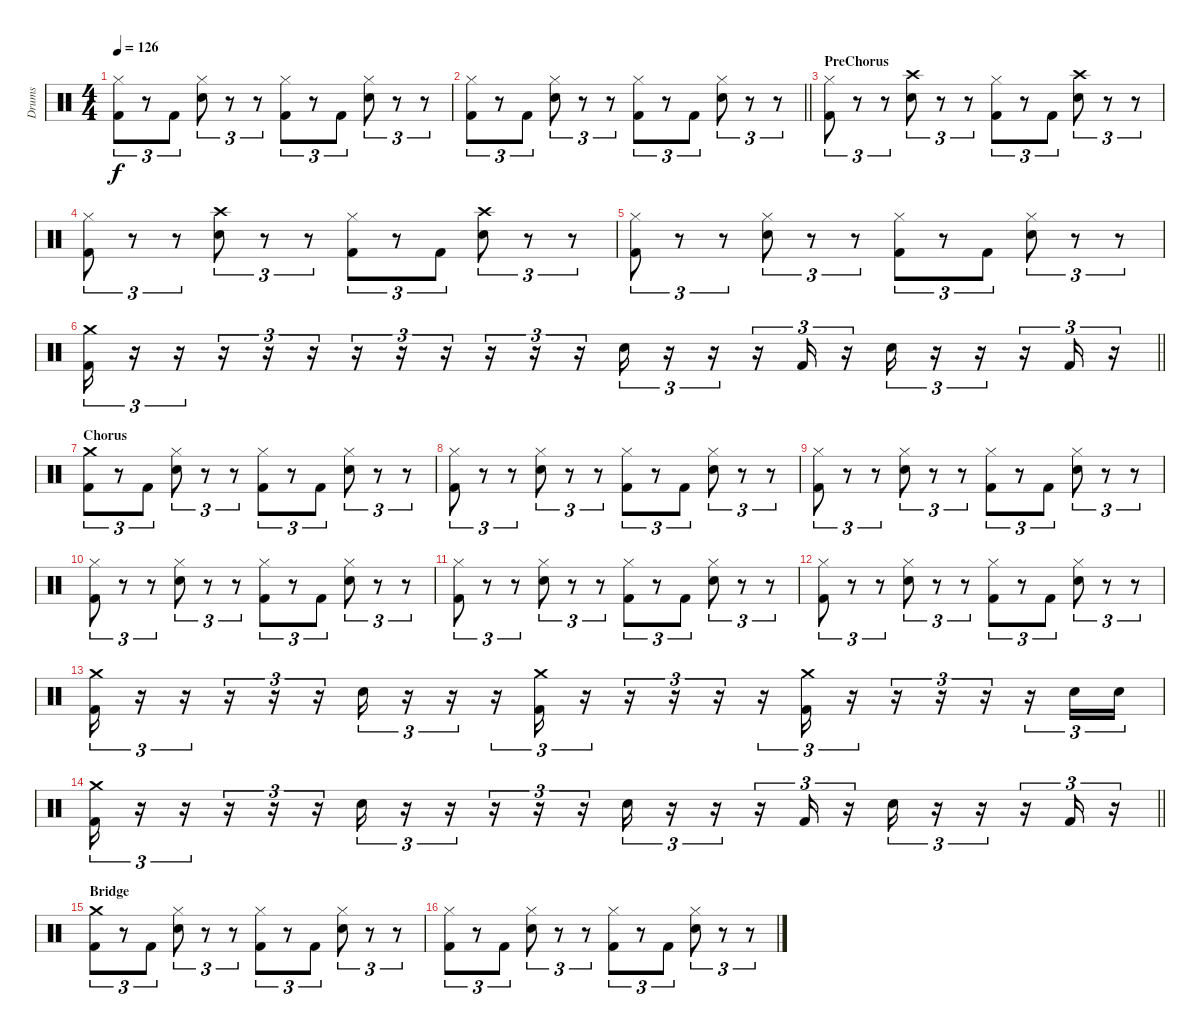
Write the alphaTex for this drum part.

\track ("Drums" "Drums") {instrument percussion}
\staff {score}
\articulation defaults
\ts (4 4)
\tempo 126
\clef neutral
\ks c
("Hi-Hat (closed)" "Kick (hit) 2").8{tu (3 2) dy f} r.8{tu (3 2)} "Kick (hit) 2".8{tu (3 2)} ("Hi-Hat (closed)" "Snare (hit) 2").8{tu (3 2)} r.8{tu (3 2)} r.8{tu (3 2)} ("Hi-Hat (closed)" "Kick (hit) 2").8{tu (3 2)} r.8{tu (3 2)} "Kick (hit) 2".8{tu (3 2)} ("Hi-Hat (closed)" "Snare (hit) 2").8{tu (3 2)} r.8{tu (3 2)} r.8{tu (3 2)} |
\barLineRight lightlight
("Hi-Hat (closed)" "Kick (hit) 2").8{tu (3 2)} r.8{tu (3 2)} "Kick (hit) 2".8{tu (3 2)} ("Hi-Hat (closed)" "Snare (hit) 2").8{tu (3 2)} r.8{tu (3 2)} r.8{tu (3 2)} ("Hi-Hat (closed)" "Kick (hit) 2").8{tu (3 2)} r.8{tu (3 2)} "Kick (hit) 2".8{tu (3 2)} ("Hi-Hat (closed)" "Snare (hit) 2").8{tu (3 2)} r.8{tu (3 2)} r.8{tu (3 2)} |
\section ("" "PreChorus")
("Hi-Hat (closed)" "Kick (hit) 2").8{tu (3 2)} r.8{tu (3 2)} r.8{tu (3 2)} ("Crash high (hit)" "Snare (hit) 2").8{tu (3 2)} r.8{tu (3 2)} r.8{tu (3 2)} ("Hi-Hat (closed)" "Kick (hit) 2").8{tu (3 2)} r.8{tu (3 2)} "Kick (hit) 2".8{tu (3 2)} ("Crash high (hit)" "Snare (hit) 2").8{tu (3 2)} r.8{tu (3 2)} r.8{tu (3 2)} |
("Hi-Hat (closed)" "Kick (hit) 2").8{tu (3 2)} r.8{tu (3 2)} r.8{tu (3 2)} ("Crash high (hit)" "Snare (hit) 2").8{tu (3 2)} r.8{tu (3 2)} r.8{tu (3 2)} ("Hi-Hat (closed)" "Kick (hit) 2").8{tu (3 2)} r.8{tu (3 2)} "Kick (hit) 2".8{tu (3 2)} ("Crash high (hit)" "Snare (hit) 2").8{tu (3 2)} r.8{tu (3 2)} r.8{tu (3 2)} |
("Hi-Hat (closed)" "Kick (hit) 2").8{tu (3 2)} r.8{tu (3 2)} r.8{tu (3 2)} ("Hi-Hat (closed)" "Snare (hit) 2").8{tu (3 2)} r.8{tu (3 2)} r.8{tu (3 2)} ("Hi-Hat (closed)" "Kick (hit) 2").8{tu (3 2)} r.8{tu (3 2)} "Kick (hit) 2".8{tu (3 2)} ("Hi-Hat (closed)" "Snare (hit) 2").8{tu (3 2)} r.8{tu (3 2)} r.8{tu (3 2)} |
\barLineRight lightlight
("Crash medium (hit)" "Kick (hit) 2").16{tu (3 2)} r.16{tu (3 2)} r.16{tu (3 2)} r.16{tu (3 2)} r.16{tu (3 2)} r.16{tu (3 2)} r.16{tu (3 2)} r.16{tu (3 2)} r.16{tu (3 2)} r.16{tu (3 2)} r.16{tu (3 2)} r.16{tu (3 2)} "Snare (hit) 2".16{tu (3 2)} r.16{tu (3 2)} r.16{tu (3 2)} r.16{tu (3 2)} "Kick (hit) 2".16{tu (3 2)} r.16{tu (3 2)} "Snare (hit) 2".16{tu (3 2)} r.16{tu (3 2)} r.16{tu (3 2)} r.16{tu (3 2)} "Kick (hit) 2".16{tu (3 2)} r.16{tu (3 2)} |
\section ("" "Chorus")
("Crash medium (hit)" "Kick (hit) 2").8{tu (3 2)} r.8{tu (3 2)} "Kick (hit) 2".8{tu (3 2)} ("Hi-Hat (closed)" "Snare (hit) 2").8{tu (3 2)} r.8{tu (3 2)} r.8{tu (3 2)} ("Hi-Hat (closed)" "Kick (hit) 2").8{tu (3 2)} r.8{tu (3 2)} "Kick (hit) 2".8{tu (3 2)} ("Hi-Hat (closed)" "Snare (hit) 2").8{tu (3 2)} r.8{tu (3 2)} r.8{tu (3 2)} |
("Hi-Hat (closed)" "Kick (hit) 2").8{tu (3 2)} r.8{tu (3 2)} r.8{tu (3 2)} ("Hi-Hat (closed)" "Snare (hit) 2").8{tu (3 2)} r.8{tu (3 2)} r.8{tu (3 2)} ("Hi-Hat (closed)" "Kick (hit) 2").8{tu (3 2)} r.8{tu (3 2)} "Kick (hit) 2".8{tu (3 2)} ("Hi-Hat (closed)" "Snare (hit) 2").8{tu (3 2)} r.8{tu (3 2)} r.8{tu (3 2)} |
("Hi-Hat (closed)" "Kick (hit) 2").8{tu (3 2)} r.8{tu (3 2)} r.8{tu (3 2)} ("Hi-Hat (closed)" "Snare (hit) 2").8{tu (3 2)} r.8{tu (3 2)} r.8{tu (3 2)} ("Hi-Hat (closed)" "Kick (hit) 2").8{tu (3 2)} r.8{tu (3 2)} "Kick (hit) 2".8{tu (3 2)} ("Hi-Hat (closed)" "Snare (hit) 2").8{tu (3 2)} r.8{tu (3 2)} r.8{tu (3 2)} |
("Hi-Hat (closed)" "Kick (hit) 2").8{tu (3 2)} r.8{tu (3 2)} r.8{tu (3 2)} ("Hi-Hat (closed)" "Snare (hit) 2").8{tu (3 2)} r.8{tu (3 2)} r.8{tu (3 2)} ("Hi-Hat (closed)" "Kick (hit) 2").8{tu (3 2)} r.8{tu (3 2)} "Kick (hit) 2".8{tu (3 2)} ("Hi-Hat (closed)" "Snare (hit) 2").8{tu (3 2)} r.8{tu (3 2)} r.8{tu (3 2)} |
("Hi-Hat (closed)" "Kick (hit) 2").8{tu (3 2)} r.8{tu (3 2)} r.8{tu (3 2)} ("Hi-Hat (closed)" "Snare (hit) 2").8{tu (3 2)} r.8{tu (3 2)} r.8{tu (3 2)} ("Hi-Hat (closed)" "Kick (hit) 2").8{tu (3 2)} r.8{tu (3 2)} "Kick (hit) 2".8{tu (3 2)} ("Hi-Hat (closed)" "Snare (hit) 2").8{tu (3 2)} r.8{tu (3 2)} r.8{tu (3 2)} |
("Hi-Hat (closed)" "Kick (hit) 2").8{tu (3 2)} r.8{tu (3 2)} r.8{tu (3 2)} ("Hi-Hat (closed)" "Snare (hit) 2").8{tu (3 2)} r.8{tu (3 2)} r.8{tu (3 2)} ("Hi-Hat (closed)" "Kick (hit) 2").8{tu (3 2)} r.8{tu (3 2)} "Kick (hit) 2".8{tu (3 2)} ("Hi-Hat (closed)" "Snare (hit) 2").8{tu (3 2)} r.8{tu (3 2)} r.8{tu (3 2)} |
("Crash medium (hit)" "Kick (hit) 2").16{tu (3 2)} r.16{tu (3 2)} r.16{tu (3 2)} r.16{tu (3 2)} r.16{tu (3 2)} r.16{tu (3 2)} "Snare (hit) 2".16{tu (3 2)} r.16{tu (3 2)} r.16{tu (3 2)} r.16{tu (3 2)} ("Crash medium (hit)" "Kick (hit) 2").16{tu (3 2)} r.16{tu (3 2)} r.16{tu (3 2)} r.16{tu (3 2)} r.16{tu (3 2)} r.16{tu (3 2)} ("Crash medium (hit)" "Kick (hit) 2").16{tu (3 2)} r.16{tu (3 2)} r.16{tu (3 2)} r.16{tu (3 2)} r.16{tu (3 2)} r.16{tu (3 2)} "Snare (hit) 2".16{tu (3 2)} "Snare (hit) 2".16{tu (3 2)} |
\barLineRight lightlight
("Crash medium (hit)" "Kick (hit) 2").16{tu (3 2)} r.16{tu (3 2)} r.16{tu (3 2)} r.16{tu (3 2)} r.16{tu (3 2)} r.16{tu (3 2)} "Snare (hit) 2".16{tu (3 2)} r.16{tu (3 2)} r.16{tu (3 2)} r.16{tu (3 2)} r.16{tu (3 2)} r.16{tu (3 2)} "Snare (hit) 2".16{tu (3 2)} r.16{tu (3 2)} r.16{tu (3 2)} r.16{tu (3 2)} "Kick (hit) 2".16{tu (3 2)} r.16{tu (3 2)} "Snare (hit) 2".16{tu (3 2)} r.16{tu (3 2)} r.16{tu (3 2)} r.16{tu (3 2)} "Kick (hit) 2".16{tu (3 2)} r.16{tu (3 2)} |
\section ("" "Bridge")
("Crash medium (hit)" "Kick (hit) 2").8{tu (3 2)} r.8{tu (3 2)} "Kick (hit) 2".8{tu (3 2)} ("Hi-Hat (closed)" "Snare (hit) 2").8{tu (3 2)} r.8{tu (3 2)} r.8{tu (3 2)} ("Hi-Hat (closed)" "Kick (hit) 2").8{tu (3 2)} r.8{tu (3 2)} "Kick (hit) 2".8{tu (3 2)} ("Hi-Hat (closed)" "Snare (hit) 2").8{tu (3 2)} r.8{tu (3 2)} r.8{tu (3 2)} |
("Hi-Hat (closed)" "Kick (hit) 2").8{tu (3 2)} r.8{tu (3 2)} "Kick (hit) 2".8{tu (3 2)} ("Hi-Hat (closed)" "Snare (hit) 2").8{tu (3 2)} r.8{tu (3 2)} r.8{tu (3 2)} ("Hi-Hat (closed)" "Kick (hit) 2").8{tu (3 2)} r.8{tu (3 2)} "Kick (hit) 2".8{tu (3 2)} ("Hi-Hat (closed)" "Snare (hit) 2").8{tu (3 2)} r.8{tu (3 2)} r.8{tu (3 2)}
